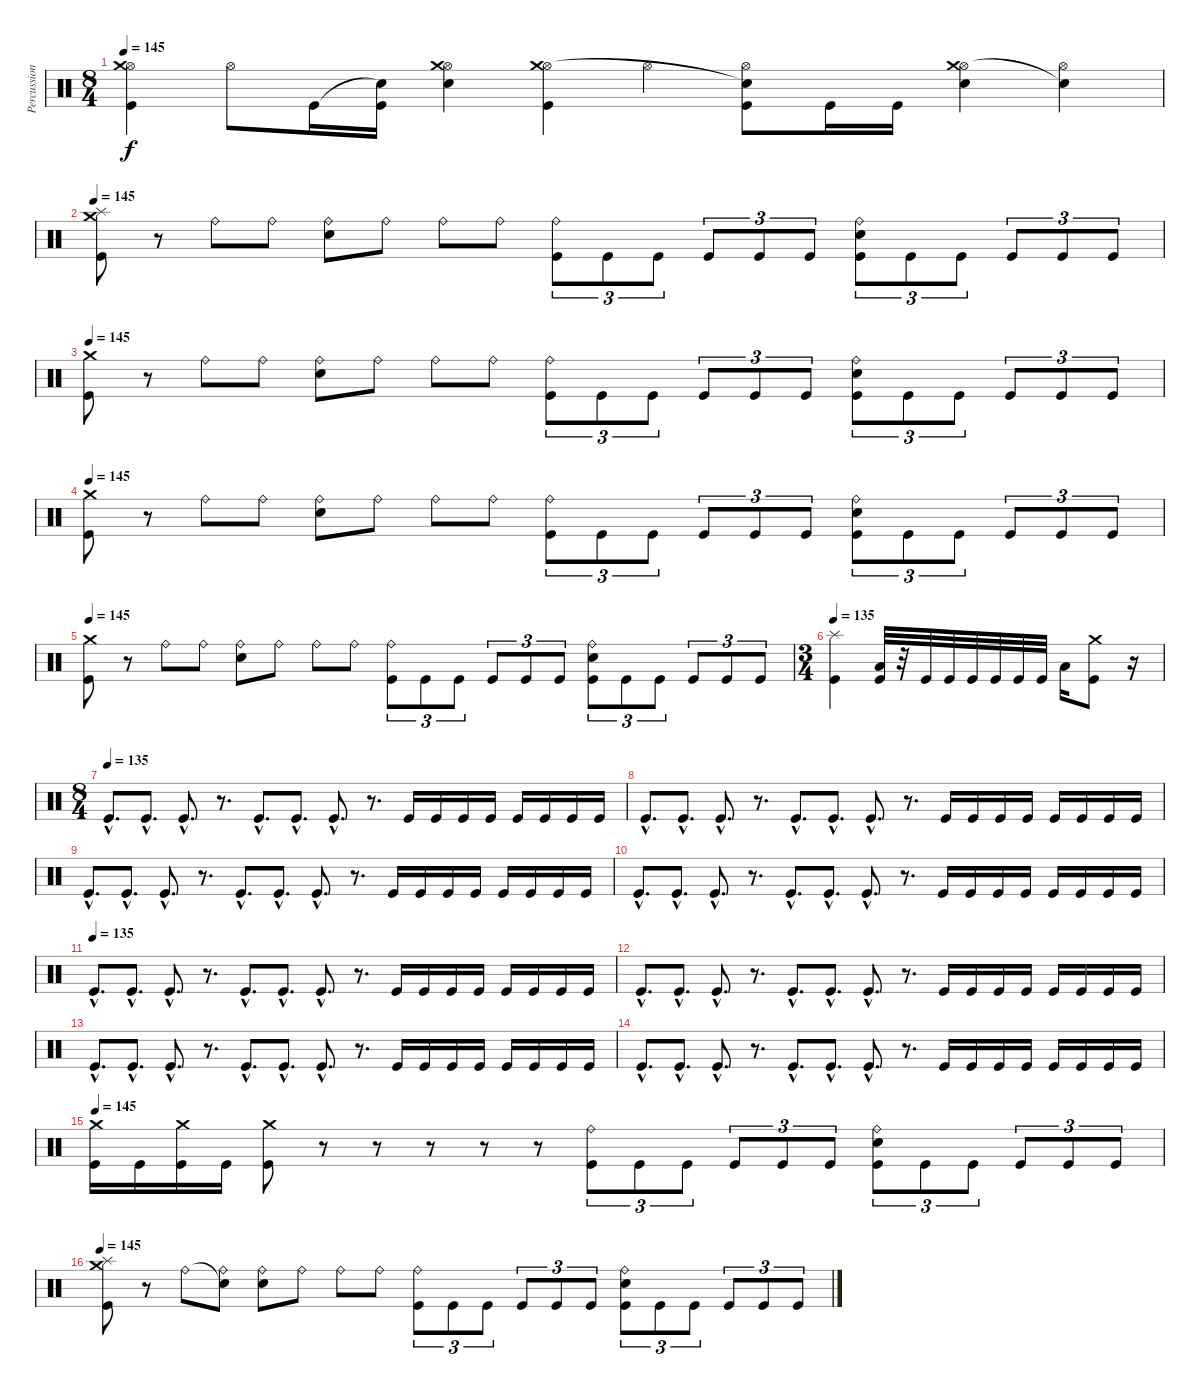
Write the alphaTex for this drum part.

\track ("Percussion" "Percussion") {instrument percussion}
\staff {score}
\articulation defaults
\ts (8 4)
\tempo 145
\clef neutral
\ks c
("Hi-Hat (open)" "Crash medium (hit)" "Kick (hit)").4{dy f} "Hi-Hat (open)".8 "Kick (hit)".16 ("Snare (hit)"{t} "Kick (hit)").16 ("Hi-Hat (open)" "Crash medium (hit)" "Electric Snare (hit)").4 ("Hi-Hat (open)" "Crash medium (hit)" "Kick (hit)").4 "Hi-Hat (open)".4 ("Hi-Hat (open)" "Snare (hit)"{t} "Kick (hit)").8 "Kick (hit)".16 "Kick (hit)".16 ("Hi-Hat (open)" "Crash medium (hit)" "Electric Snare (hit)").4 ("Hi-Hat (open)" "Snare (hit)"{t}).4 |
\tempo 145
("Crash medium (hit)" "Splash (hit)" "Kick (hit)").8 r.8 "Ride (bell)".8 "Ride (bell)".8 ("Ride (bell)" "Electric Snare (hit)").8 "Ride (bell)".8 "Ride (bell)".8 "Ride (bell)".8 ("Ride (bell)" "Kick (hit)").8{tu (3 2)} "Kick (hit)".8{tu (3 2)} "Kick (hit)".8{tu (3 2)} "Kick (hit)".8{tu (3 2)} "Kick (hit)".8{tu (3 2)} "Kick (hit)".8{tu (3 2)} ("Ride (bell)" "Electric Snare (hit)" "Kick (hit)").8{tu (3 2)} "Kick (hit)".8{tu (3 2)} "Kick (hit)".8{tu (3 2)} "Kick (hit)".8{tu (3 2)} "Kick (hit)".8{tu (3 2)} "Kick (hit)".8{tu (3 2)} |
\tempo 145
("Crash medium (hit)" "Kick (hit)").8 r.8 "Ride (bell)".8 "Ride (bell)".8 ("Ride (bell)" "Electric Snare (hit)").8 "Ride (bell)".8 "Ride (bell)".8 "Ride (bell)".8 ("Ride (bell)" "Kick (hit)").8{tu (3 2)} "Kick (hit)".8{tu (3 2)} "Kick (hit)".8{tu (3 2)} "Kick (hit)".8{tu (3 2)} "Kick (hit)".8{tu (3 2)} "Kick (hit)".8{tu (3 2)} ("Ride (bell)" "Electric Snare (hit)" "Kick (hit)").8{tu (3 2)} "Kick (hit)".8{tu (3 2)} "Kick (hit)".8{tu (3 2)} "Kick (hit)".8{tu (3 2)} "Kick (hit)".8{tu (3 2)} "Kick (hit)".8{tu (3 2)} |
\tempo 145
("Crash medium (hit)" "Kick (hit)").8 r.8 "Ride (bell)".8 "Ride (bell)".8 ("Ride (bell)" "Electric Snare (hit)").8 "Ride (bell)".8 "Ride (bell)".8 "Ride (bell)".8 ("Ride (bell)" "Kick (hit)").8{tu (3 2)} "Kick (hit)".8{tu (3 2)} "Kick (hit)".8{tu (3 2)} "Kick (hit)".8{tu (3 2)} "Kick (hit)".8{tu (3 2)} "Kick (hit)".8{tu (3 2)} ("Ride (bell)" "Electric Snare (hit)" "Kick (hit)").8{tu (3 2)} "Kick (hit)".8{tu (3 2)} "Kick (hit)".8{tu (3 2)} "Kick (hit)".8{tu (3 2)} "Kick (hit)".8{tu (3 2)} "Kick (hit)".8{tu (3 2)} |
\tempo 145
("Crash medium (hit)" "Kick (hit)").8 r.8 "Ride (bell)".8 "Ride (bell)".8 ("Ride (bell)" "Electric Snare (hit)").8 "Ride (bell)".8 "Ride (bell)".8 "Ride (bell)".8 ("Ride (bell)" "Kick (hit)").8{tu (3 2)} "Kick (hit)".8{tu (3 2)} "Kick (hit)".8{tu (3 2)} "Kick (hit)".8{tu (3 2)} "Kick (hit)".8{tu (3 2)} "Kick (hit)".8{tu (3 2)} ("Ride (bell)" "Electric Snare (hit)" "Kick (hit)").8{tu (3 2)} "Kick (hit)".8{tu (3 2)} "Kick (hit)".8{tu (3 2)} "Kick (hit)".8{tu (3 2)} "Kick (hit)".8{tu (3 2)} "Kick (hit)".8{tu (3 2)} |
\ts (3 4)
\tempo 135
("Splash (hit)" "Kick (hit)").4 ("Low Tom (hit)" "Kick (hit)").32 r.32 "Kick (hit)".32 "Kick (hit)".32 "Kick (hit)".32 "Kick (hit)".32 "Kick (hit)".32 "Kick (hit)".32 "Low Tom (hit)".16 ("Crash medium (hit)" "Kick (hit)").8 r.16 |
\ts (8 4)
\tempo (135)
"Kick (hit)"{hac}.8{d} "Kick (hit)"{hac}.8{d} "Kick (hit)"{hac}.8{d} r.8{d} "Kick (hit)"{hac}.8{d} "Kick (hit)"{hac}.8{d} "Kick (hit)"{hac}.8{d} r.8{d} "Kick (hit)".16 "Kick (hit)".16 "Kick (hit)".16 "Kick (hit)".16 "Kick (hit)".16 "Kick (hit)".16 "Kick (hit)".16 "Kick (hit)".16 |
"Kick (hit)"{hac}.8{d} "Kick (hit)"{hac}.8{d} "Kick (hit)"{hac}.8{d} r.8{d} "Kick (hit)"{hac}.8{d} "Kick (hit)"{hac}.8{d} "Kick (hit)"{hac}.8{d} r.8{d} "Kick (hit)".16 "Kick (hit)".16 "Kick (hit)".16 "Kick (hit)".16 "Kick (hit)".16 "Kick (hit)".16 "Kick (hit)".16 "Kick (hit)".16 |
"Kick (hit)"{hac}.8{d} "Kick (hit)"{hac}.8{d} "Kick (hit)"{hac}.8{d} r.8{d} "Kick (hit)"{hac}.8{d} "Kick (hit)"{hac}.8{d} "Kick (hit)"{hac}.8{d} r.8{d} "Kick (hit)".16 "Kick (hit)".16 "Kick (hit)".16 "Kick (hit)".16 "Kick (hit)".16 "Kick (hit)".16 "Kick (hit)".16 "Kick (hit)".16 |
"Kick (hit)"{hac}.8{d} "Kick (hit)"{hac}.8{d} "Kick (hit)"{hac}.8{d} r.8{d} "Kick (hit)"{hac}.8{d} "Kick (hit)"{hac}.8{d} "Kick (hit)"{hac}.8{d} r.8{d} "Kick (hit)".16 "Kick (hit)".16 "Kick (hit)".16 "Kick (hit)".16 "Kick (hit)".16 "Kick (hit)".16 "Kick (hit)".16 "Kick (hit)".16 |
\tempo (135)
"Kick (hit)"{hac}.8{d} "Kick (hit)"{hac}.8{d} "Kick (hit)"{hac}.8{d} r.8{d} "Kick (hit)"{hac}.8{d} "Kick (hit)"{hac}.8{d} "Kick (hit)"{hac}.8{d} r.8{d} "Kick (hit)".16 "Kick (hit)".16 "Kick (hit)".16 "Kick (hit)".16 "Kick (hit)".16 "Kick (hit)".16 "Kick (hit)".16 "Kick (hit)".16 |
"Kick (hit)"{hac}.8{d} "Kick (hit)"{hac}.8{d} "Kick (hit)"{hac}.8{d} r.8{d} "Kick (hit)"{hac}.8{d} "Kick (hit)"{hac}.8{d} "Kick (hit)"{hac}.8{d} r.8{d} "Kick (hit)".16 "Kick (hit)".16 "Kick (hit)".16 "Kick (hit)".16 "Kick (hit)".16 "Kick (hit)".16 "Kick (hit)".16 "Kick (hit)".16 |
"Kick (hit)"{hac}.8{d} "Kick (hit)"{hac}.8{d} "Kick (hit)"{hac}.8{d} r.8{d} "Kick (hit)"{hac}.8{d} "Kick (hit)"{hac}.8{d} "Kick (hit)"{hac}.8{d} r.8{d} "Kick (hit)".16 "Kick (hit)".16 "Kick (hit)".16 "Kick (hit)".16 "Kick (hit)".16 "Kick (hit)".16 "Kick (hit)".16 "Kick (hit)".16 |
"Kick (hit)"{hac}.8{d} "Kick (hit)"{hac}.8{d} "Kick (hit)"{hac}.8{d} r.8{d} "Kick (hit)"{hac}.8{d} "Kick (hit)"{hac}.8{d} "Kick (hit)"{hac}.8{d} r.8{d} "Kick (hit)".16 "Kick (hit)".16 "Kick (hit)".16 "Kick (hit)".16 "Kick (hit)".16 "Kick (hit)".16 "Kick (hit)".16 "Kick (hit)".16 |
\tempo 145
("Crash medium (hit)" "Kick (hit)").16 "Kick (hit)".16 ("Crash medium (hit)" "Kick (hit)").16 "Kick (hit)".16 ("Crash medium (hit)" "Kick (hit)").8 r.8 r.8 r.8 r.8 r.8 ("Ride (bell)" "Kick (hit)").8{tu (3 2)} "Kick (hit)".8{tu (3 2)} "Kick (hit)".8{tu (3 2)} "Kick (hit)".8{tu (3 2)} "Kick (hit)".8{tu (3 2)} "Kick (hit)".8{tu (3 2)} ("Ride (bell)" "Electric Snare (hit)" "Kick (hit)").8{tu (3 2)} "Kick (hit)".8{tu (3 2)} "Kick (hit)".8{tu (3 2)} "Kick (hit)".8{tu (3 2)} "Kick (hit)".8{tu (3 2)} "Kick (hit)".8{tu (3 2)} |
\tempo 145
("Crash medium (hit)" "Splash (hit)" "Kick (hit)").8 r.8 "Ride (bell)".8 ("Snare (hit)"{t} "Ride (bell)").8 ("Ride (bell)" "Electric Snare (hit)").8 "Ride (bell)".8 "Ride (bell)".8 "Ride (bell)".8 ("Ride (bell)" "Kick (hit)").8{tu (3 2)} "Kick (hit)".8{tu (3 2)} "Kick (hit)".8{tu (3 2)} "Kick (hit)".8{tu (3 2)} "Kick (hit)".8{tu (3 2)} "Kick (hit)".8{tu (3 2)} ("Ride (bell)" "Electric Snare (hit)" "Kick (hit)").8{tu (3 2)} "Kick (hit)".8{tu (3 2)} "Kick (hit)".8{tu (3 2)} "Kick (hit)".8{tu (3 2)} "Kick (hit)".8{tu (3 2)} "Kick (hit)".8{tu (3 2)}
